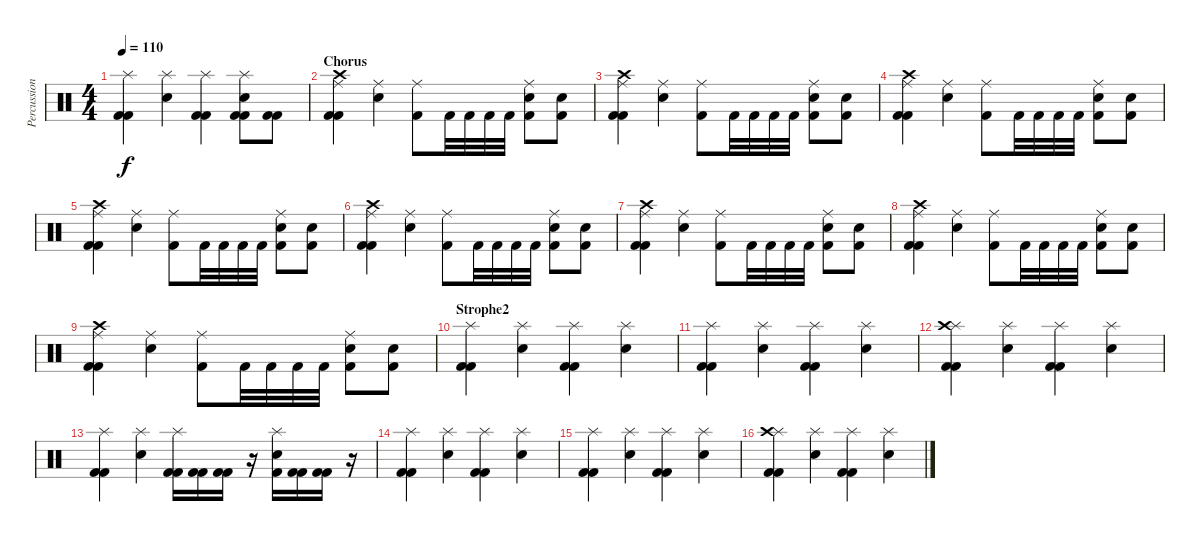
\track ("Percussion" "Percussion") {instrument percussion}
\staff {score}
\articulation defaults
\ts (4 4)
\tempo 110
\clef neutral
\ks c
("Splash (hit)" "Kick (hit) 2" "Kick (hit) 2").4{dy f} ("Splash (hit)" "Electric Snare (hit)").4 ("Splash (hit)" "Kick (hit) 2" "Kick (hit) 2").4 ("Splash (hit)" "Kick (hit) 2" "Electric Snare (hit)" "Kick (hit) 2").8 ("Kick (hit) 2" "Kick (hit) 2").8 |
\section ("" "Chorus")
("Crash high (hit)" "Ride (middle)" "Kick (hit) 2" "Kick (hit) 2").4 ("Ride (middle)" "Electric Snare (hit)").4 ("Ride (middle)" "Kick (hit) 2").8 "Kick (hit) 2".32 "Kick (hit) 2".32 "Kick (hit) 2".32 "Kick (hit) 2".32 ("Ride (middle)" "Electric Snare (hit)" "Kick (hit) 2").8 ("Electric Snare (hit)" "Kick (hit) 2").8 |
("Crash high (hit)" "Ride (middle)" "Kick (hit) 2" "Kick (hit) 2").4 ("Ride (middle)" "Electric Snare (hit)").4 ("Ride (middle)" "Kick (hit) 2").8 "Kick (hit) 2".32 "Kick (hit) 2".32 "Kick (hit) 2".32 "Kick (hit) 2".32 ("Ride (middle)" "Electric Snare (hit)" "Kick (hit) 2").8 ("Electric Snare (hit)" "Kick (hit) 2").8 |
("Crash high (hit)" "Ride (middle)" "Kick (hit) 2" "Kick (hit) 2").4 ("Ride (middle)" "Electric Snare (hit)").4 ("Ride (middle)" "Kick (hit) 2").8 "Kick (hit) 2".32 "Kick (hit) 2".32 "Kick (hit) 2".32 "Kick (hit) 2".32 ("Ride (middle)" "Electric Snare (hit)" "Kick (hit) 2").8 ("Electric Snare (hit)" "Kick (hit) 2").8 |
("Crash high (hit)" "Ride (middle)" "Kick (hit) 2" "Kick (hit) 2").4 ("Ride (middle)" "Electric Snare (hit)").4 ("Ride (middle)" "Kick (hit) 2").8 "Kick (hit) 2".32 "Kick (hit) 2".32 "Kick (hit) 2".32 "Kick (hit) 2".32 ("Ride (middle)" "Electric Snare (hit)" "Kick (hit) 2").8 ("Electric Snare (hit)" "Kick (hit) 2").8 |
("Crash high (hit)" "Ride (middle)" "Kick (hit) 2" "Kick (hit) 2").4 ("Ride (middle)" "Electric Snare (hit)").4 ("Ride (middle)" "Kick (hit) 2").8 "Kick (hit) 2".32 "Kick (hit) 2".32 "Kick (hit) 2".32 "Kick (hit) 2".32 ("Ride (middle)" "Electric Snare (hit)" "Kick (hit) 2").8 ("Electric Snare (hit)" "Kick (hit) 2").8 |
("Crash high (hit)" "Ride (middle)" "Kick (hit) 2" "Kick (hit) 2").4 ("Ride (middle)" "Electric Snare (hit)").4 ("Ride (middle)" "Kick (hit) 2").8 "Kick (hit) 2".32 "Kick (hit) 2".32 "Kick (hit) 2".32 "Kick (hit) 2".32 ("Ride (middle)" "Electric Snare (hit)" "Kick (hit) 2").8 ("Electric Snare (hit)" "Kick (hit) 2").8 |
("Crash high (hit)" "Ride (middle)" "Kick (hit) 2" "Kick (hit) 2").4 ("Ride (middle)" "Electric Snare (hit)").4 ("Ride (middle)" "Kick (hit) 2").8 "Kick (hit) 2".32 "Kick (hit) 2".32 "Kick (hit) 2".32 "Kick (hit) 2".32 ("Ride (middle)" "Electric Snare (hit)" "Kick (hit) 2").8 ("Electric Snare (hit)" "Kick (hit) 2").8 |
("Crash high (hit)" "Ride (middle)" "Kick (hit) 2" "Kick (hit) 2").4 ("Ride (middle)" "Electric Snare (hit)").4 ("Ride (middle)" "Kick (hit) 2").8 "Kick (hit) 2".32 "Kick (hit) 2".32 "Kick (hit) 2".32 "Kick (hit) 2".32 ("Ride (middle)" "Electric Snare (hit)" "Kick (hit) 2").8 ("Electric Snare (hit)" "Kick (hit) 2").8 |
\section ("" "Strophe2")
("Splash (hit)" "Kick (hit) 2" "Kick (hit) 2").4 ("Splash (hit)" "Electric Snare (hit)").4 ("Splash (hit)" "Kick (hit) 2" "Kick (hit) 2").4 ("Splash (hit)" "Electric Snare (hit)").4 |
("Splash (hit)" "Kick (hit) 2" "Kick (hit) 2").4 ("Splash (hit)" "Electric Snare (hit)").4 ("Splash (hit)" "Kick (hit) 2" "Kick (hit) 2").4 ("Splash (hit)" "Electric Snare (hit)").4 |
("Splash (hit)" "Crash high (hit)" "Kick (hit) 2" "Kick (hit) 2").4 ("Splash (hit)" "Electric Snare (hit)").4 ("Splash (hit)" "Kick (hit) 2" "Kick (hit) 2").4 ("Splash (hit)" "Electric Snare (hit)").4 |
("Splash (hit)" "Kick (hit) 2" "Kick (hit) 2").4 ("Splash (hit)" "Electric Snare (hit)").4 ("Splash (hit)" "Kick (hit) 2" "Kick (hit) 2").16 ("Kick (hit) 2" "Kick (hit) 2").16 ("Kick (hit) 2" "Kick (hit) 2").16 r.16 ("Splash (hit)" "Electric Snare (hit)" "Kick (hit) 2").16 ("Kick (hit) 2" "Kick (hit) 2").16 ("Kick (hit) 2" "Kick (hit) 2").16 r.16 |
("Splash (hit)" "Kick (hit) 2" "Kick (hit) 2").4 ("Splash (hit)" "Electric Snare (hit)").4 ("Splash (hit)" "Kick (hit) 2" "Kick (hit) 2").4 ("Splash (hit)" "Electric Snare (hit)").4 |
("Splash (hit)" "Kick (hit) 2" "Kick (hit) 2").4 ("Splash (hit)" "Electric Snare (hit)").4 ("Splash (hit)" "Kick (hit) 2" "Kick (hit) 2").4 ("Splash (hit)" "Electric Snare (hit)").4 |
("Splash (hit)" "Crash high (hit)" "Kick (hit) 2" "Kick (hit) 2").4 ("Splash (hit)" "Electric Snare (hit)").4 ("Splash (hit)" "Kick (hit) 2" "Kick (hit) 2").4 ("Splash (hit)" "Electric Snare (hit)").4
